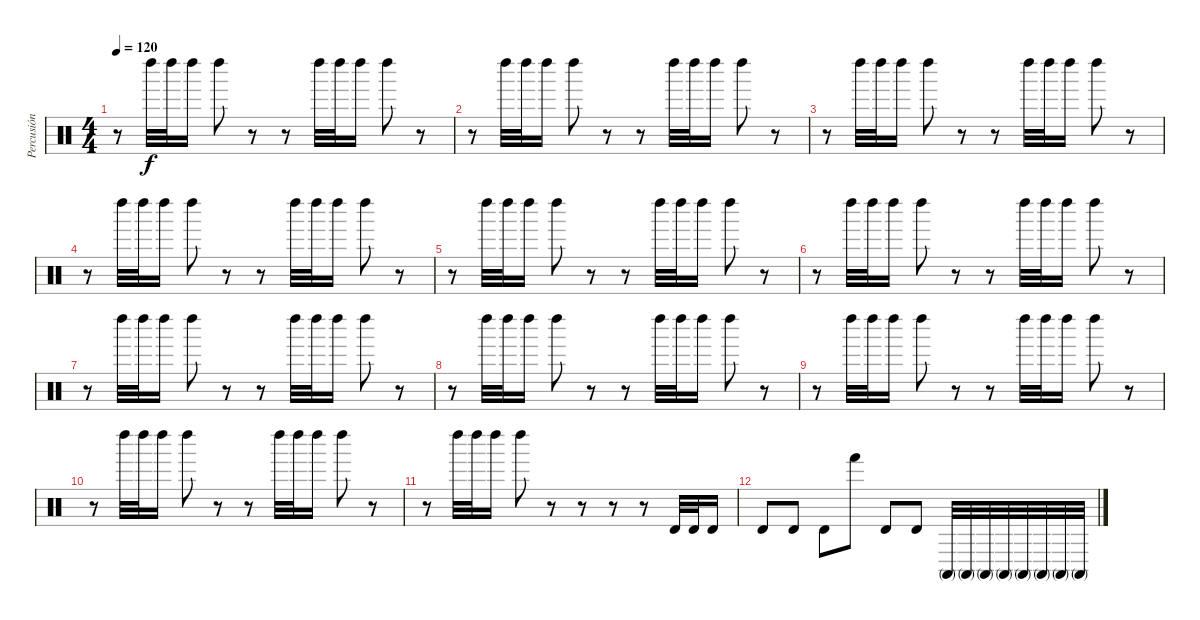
\track ("Percusión" "Percusión") {instrument percussion}
\staff {score}
\articulation defaults
\ts (4 4)
\tempo 120
\clef neutral
\ks c
r.8{dy f} "Left Maraca (hit)".32 "Left Maraca (hit)".32 "Left Maraca (hit)".16 "Left Maraca (hit)".8 r.8 r.8 "Left Maraca (hit)".32 "Left Maraca (hit)".32 "Left Maraca (hit)".16 "Left Maraca (hit)".8 r.8 |
r.8 "Left Maraca (hit)".32 "Left Maraca (hit)".32 "Left Maraca (hit)".16 "Left Maraca (hit)".8 r.8 r.8 "Left Maraca (hit)".32 "Left Maraca (hit)".32 "Left Maraca (hit)".16 "Left Maraca (hit)".8 r.8 |
r.8 "Left Maraca (hit)".32 "Left Maraca (hit)".32 "Left Maraca (hit)".16 "Left Maraca (hit)".8 r.8 r.8 "Left Maraca (hit)".32 "Left Maraca (hit)".32 "Left Maraca (hit)".16 "Left Maraca (hit)".8 r.8 |
r.8 "Left Maraca (hit)".32 "Left Maraca (hit)".32 "Left Maraca (hit)".16 "Left Maraca (hit)".8 r.8 r.8 "Left Maraca (hit)".32 "Left Maraca (hit)".32 "Left Maraca (hit)".16 "Left Maraca (hit)".8 r.8 |
r.8 "Left Maraca (hit)".32 "Left Maraca (hit)".32 "Left Maraca (hit)".16 "Left Maraca (hit)".8 r.8 r.8 "Left Maraca (hit)".32 "Left Maraca (hit)".32 "Left Maraca (hit)".16 "Left Maraca (hit)".8 r.8 |
r.8 "Left Maraca (hit)".32 "Left Maraca (hit)".32 "Left Maraca (hit)".16 "Left Maraca (hit)".8 r.8 r.8 "Left Maraca (hit)".32 "Left Maraca (hit)".32 "Left Maraca (hit)".16 "Left Maraca (hit)".8 r.8 |
r.8 "Left Maraca (hit)".32 "Left Maraca (hit)".32 "Left Maraca (hit)".16 "Left Maraca (hit)".8 r.8 r.8 "Left Maraca (hit)".32 "Left Maraca (hit)".32 "Left Maraca (hit)".16 "Left Maraca (hit)".8 r.8 |
r.8 "Left Maraca (hit)".32 "Left Maraca (hit)".32 "Left Maraca (hit)".16 "Left Maraca (hit)".8 r.8 r.8 "Left Maraca (hit)".32 "Left Maraca (hit)".32 "Left Maraca (hit)".16 "Left Maraca (hit)".8 r.8 |
r.8 "Left Maraca (hit)".32 "Left Maraca (hit)".32 "Left Maraca (hit)".16 "Left Maraca (hit)".8 r.8 r.8 "Left Maraca (hit)".32 "Left Maraca (hit)".32 "Left Maraca (hit)".16 "Left Maraca (hit)".8 r.8 |
r.8 "Left Maraca (hit)".32 "Left Maraca (hit)".32 "Left Maraca (hit)".16 "Left Maraca (hit)".8 r.8 r.8 "Left Maraca (hit)".32 "Left Maraca (hit)".32 "Left Maraca (hit)".16 "Left Maraca (hit)".8 r.8 |
r.8 "Left Maraca (hit)".32 "Left Maraca (hit)".32 "Left Maraca (hit)".16 "Left Maraca (hit)".8 r.8 r.8 r.8 r.8 "Timbale high (hit)".32 "Timbale high (hit)".32 "Timbale high (hit)".16 |
"Timbale high (hit)".8 "Timbale high (hit)".8 "Timbale high (hit)".8 "Hand (hit)".8 "Timbale high (hit)".8 "Timbale high (hit)".8 "Conga high (mute)".32 "Conga high (mute)".32 "Conga high (mute)".32 "Conga high (mute)".32 "Conga high (mute)".32 "Conga high (mute)".32 "Conga high (mute)".32 "Conga high (mute)".32
